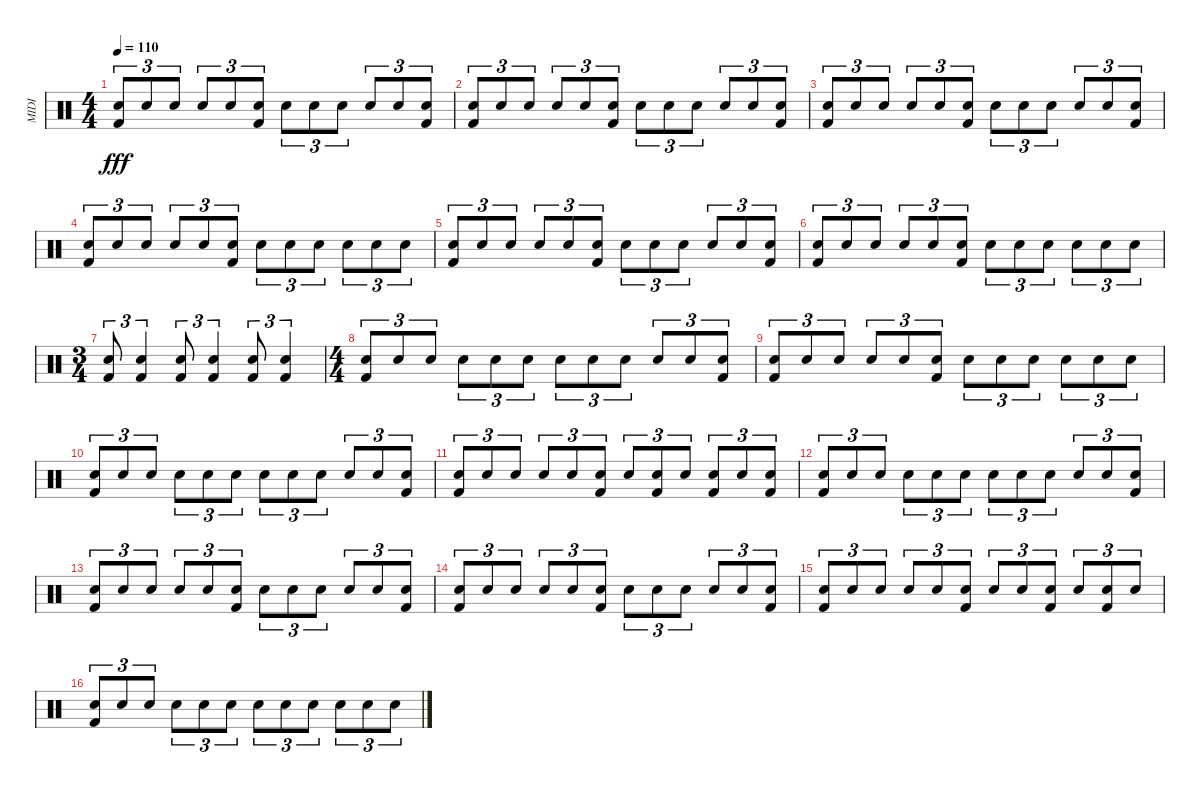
\track ("MIDI" "MIDI") {instrument percussion}
\staff
\articulation defaults
\ts (4 4)
\tempo 110
\clef neutral
\ks c
("Kick (hit) 2" "Snare (hit)").8{tu (3 2) dy fff} "Snare (hit)".8{tu (3 2)} "Snare (hit)".8{tu (3 2)} "Snare (hit)".8{tu (3 2)} "Snare (hit)".8{tu (3 2)} ("Kick (hit) 2" "Snare (hit)").8{tu (3 2)} "Snare (hit)".8{tu (3 2)} "Snare (hit)".8{tu (3 2)} "Snare (hit)".8{tu (3 2)} "Snare (hit)".8{tu (3 2)} "Snare (hit)".8{tu (3 2)} ("Kick (hit) 2" "Snare (hit)").8{tu (3 2)} |
("Kick (hit) 2" "Snare (hit)").8{tu (3 2)} "Snare (hit)".8{tu (3 2)} "Snare (hit)".8{tu (3 2)} "Snare (hit)".8{tu (3 2)} "Snare (hit)".8{tu (3 2)} ("Kick (hit) 2" "Snare (hit)").8{tu (3 2)} "Snare (hit)".8{tu (3 2)} "Snare (hit)".8{tu (3 2)} "Snare (hit)".8{tu (3 2)} "Snare (hit)".8{tu (3 2)} "Snare (hit)".8{tu (3 2)} ("Kick (hit) 2" "Snare (hit)").8{tu (3 2)} |
("Kick (hit) 2" "Snare (hit)").8{tu (3 2)} "Snare (hit)".8{tu (3 2)} "Snare (hit)".8{tu (3 2)} "Snare (hit)".8{tu (3 2)} "Snare (hit)".8{tu (3 2)} ("Kick (hit) 2" "Snare (hit)").8{tu (3 2)} "Snare (hit)".8{tu (3 2)} "Snare (hit)".8{tu (3 2)} "Snare (hit)".8{tu (3 2)} "Snare (hit)".8{tu (3 2)} "Snare (hit)".8{tu (3 2)} ("Kick (hit) 2" "Snare (hit)").8{tu (3 2)} |
("Kick (hit) 2" "Snare (hit)").8{tu (3 2)} "Snare (hit)".8{tu (3 2)} "Snare (hit)".8{tu (3 2)} "Snare (hit)".8{tu (3 2)} "Snare (hit)".8{tu (3 2)} ("Kick (hit) 2" "Snare (hit)").8{tu (3 2)} "Snare (hit)".8{tu (3 2)} "Snare (hit)".8{tu (3 2)} "Snare (hit)".8{tu (3 2)} "Snare (hit)".8{tu (3 2)} "Snare (hit)".8{tu (3 2)} "Snare (hit)".8{tu (3 2)} |
("Kick (hit) 2" "Snare (hit)").8{tu (3 2)} "Snare (hit)".8{tu (3 2)} "Snare (hit)".8{tu (3 2)} "Snare (hit)".8{tu (3 2)} "Snare (hit)".8{tu (3 2)} ("Kick (hit) 2" "Snare (hit)").8{tu (3 2)} "Snare (hit)".8{tu (3 2)} "Snare (hit)".8{tu (3 2)} "Snare (hit)".8{tu (3 2)} "Snare (hit)".8{tu (3 2)} "Snare (hit)".8{tu (3 2)} ("Kick (hit) 2" "Snare (hit)").8{tu (3 2)} |
("Kick (hit) 2" "Snare (hit)").8{tu (3 2)} "Snare (hit)".8{tu (3 2)} "Snare (hit)".8{tu (3 2)} "Snare (hit)".8{tu (3 2)} "Snare (hit)".8{tu (3 2)} ("Kick (hit) 2" "Snare (hit)").8{tu (3 2)} "Snare (hit)".8{tu (3 2)} "Snare (hit)".8{tu (3 2)} "Snare (hit)".8{tu (3 2)} "Snare (hit)".8{tu (3 2)} "Snare (hit)".8{tu (3 2)} "Snare (hit)".8{tu (3 2)} |
\ts (3 4)
("Kick (hit) 2" "Snare (hit)").8{tu (3 2)} ("Kick (hit) 2" "Snare (hit)").4{tu (3 2)} ("Kick (hit) 2" "Snare (hit)").8{tu (3 2)} ("Kick (hit) 2" "Snare (hit)").4{tu (3 2)} ("Kick (hit) 2" "Snare (hit)").8{tu (3 2)} ("Kick (hit) 2" "Snare (hit)").4{tu (3 2)} |
\ts (4 4)
("Kick (hit) 2" "Snare (hit)").8{tu (3 2)} "Snare (hit)".8{tu (3 2)} "Snare (hit)".8{tu (3 2)} "Snare (hit)".8{tu (3 2)} "Snare (hit)".8{tu (3 2)} "Snare (hit)".8{tu (3 2)} "Snare (hit)".8{tu (3 2)} "Snare (hit)".8{tu (3 2)} "Snare (hit)".8{tu (3 2)} "Snare (hit)".8{tu (3 2)} "Snare (hit)".8{tu (3 2)} ("Kick (hit) 2" "Snare (hit)").8{tu (3 2)} |
("Kick (hit) 2" "Snare (hit)").8{tu (3 2)} "Snare (hit)".8{tu (3 2)} "Snare (hit)".8{tu (3 2)} "Snare (hit)".8{tu (3 2)} "Snare (hit)".8{tu (3 2)} ("Kick (hit) 2" "Snare (hit)").8{tu (3 2)} "Snare (hit)".8{tu (3 2)} "Snare (hit)".8{tu (3 2)} "Snare (hit)".8{tu (3 2)} "Snare (hit)".8{tu (3 2)} "Snare (hit)".8{tu (3 2)} "Snare (hit)".8{tu (3 2)} |
("Kick (hit) 2" "Snare (hit)").8{tu (3 2)} "Snare (hit)".8{tu (3 2)} "Snare (hit)".8{tu (3 2)} "Snare (hit)".8{tu (3 2)} "Snare (hit)".8{tu (3 2)} "Snare (hit)".8{tu (3 2)} "Snare (hit)".8{tu (3 2)} "Snare (hit)".8{tu (3 2)} "Snare (hit)".8{tu (3 2)} "Snare (hit)".8{tu (3 2)} "Snare (hit)".8{tu (3 2)} ("Kick (hit) 2" "Snare (hit)").8{tu (3 2)} |
("Kick (hit) 2" "Snare (hit)").8{tu (3 2)} "Snare (hit)".8{tu (3 2)} "Snare (hit)".8{tu (3 2)} "Snare (hit)".8{tu (3 2)} "Snare (hit)".8{tu (3 2)} ("Kick (hit) 2" "Snare (hit)").8{tu (3 2)} "Snare (hit)".8{tu (3 2)} ("Kick (hit) 2" "Snare (hit)").8{tu (3 2)} "Snare (hit)".8{tu (3 2)} ("Kick (hit) 2" "Snare (hit)").8{tu (3 2)} "Snare (hit)".8{tu (3 2)} ("Kick (hit) 2" "Snare (hit)").8{tu (3 2)} |
("Kick (hit) 2" "Snare (hit)").8{tu (3 2)} "Snare (hit)".8{tu (3 2)} "Snare (hit)".8{tu (3 2)} "Snare (hit)".8{tu (3 2)} "Snare (hit)".8{tu (3 2)} "Snare (hit)".8{tu (3 2)} "Snare (hit)".8{tu (3 2)} "Snare (hit)".8{tu (3 2)} "Snare (hit)".8{tu (3 2)} "Snare (hit)".8{tu (3 2)} "Snare (hit)".8{tu (3 2)} ("Kick (hit) 2" "Snare (hit)").8{tu (3 2)} |
("Kick (hit) 2" "Snare (hit)").8{tu (3 2)} "Snare (hit)".8{tu (3 2)} "Snare (hit)".8{tu (3 2)} "Snare (hit)".8{tu (3 2)} "Snare (hit)".8{tu (3 2)} ("Kick (hit) 2" "Snare (hit)").8{tu (3 2)} "Snare (hit)".8{tu (3 2)} "Snare (hit)".8{tu (3 2)} "Snare (hit)".8{tu (3 2)} "Snare (hit)".8{tu (3 2)} "Snare (hit)".8{tu (3 2)} ("Kick (hit) 2" "Snare (hit)").8{tu (3 2)} |
("Kick (hit) 2" "Snare (hit)").8{tu (3 2)} "Snare (hit)".8{tu (3 2)} "Snare (hit)".8{tu (3 2)} "Snare (hit)".8{tu (3 2)} "Snare (hit)".8{tu (3 2)} ("Kick (hit) 2" "Snare (hit)").8{tu (3 2)} "Snare (hit)".8{tu (3 2)} "Snare (hit)".8{tu (3 2)} "Snare (hit)".8{tu (3 2)} "Snare (hit)".8{tu (3 2)} "Snare (hit)".8{tu (3 2)} ("Kick (hit) 2" "Snare (hit)").8{tu (3 2)} |
("Kick (hit) 2" "Snare (hit)").8{tu (3 2)} "Snare (hit)".8{tu (3 2)} "Snare (hit)".8{tu (3 2)} "Snare (hit)".8{tu (3 2)} "Snare (hit)".8{tu (3 2)} ("Kick (hit) 2" "Snare (hit)").8{tu (3 2)} "Snare (hit)".8{tu (3 2)} "Snare (hit)".8{tu (3 2)} ("Kick (hit) 2" "Snare (hit)").8{tu (3 2)} "Snare (hit)".8{tu (3 2)} ("Kick (hit) 2" "Snare (hit)").8{tu (3 2)} "Snare (hit)".8{tu (3 2)} |
("Kick (hit) 2" "Snare (hit)").8{tu (3 2)} "Snare (hit)".8{tu (3 2)} "Snare (hit)".8{tu (3 2)} "Snare (hit)".8{tu (3 2)} "Snare (hit)".8{tu (3 2)} "Snare (hit)".8{tu (3 2)} "Snare (hit)".8{tu (3 2)} "Snare (hit)".8{tu (3 2)} "Snare (hit)".8{tu (3 2)} "Snare (hit)".8{tu (3 2)} "Snare (hit)".8{tu (3 2)} "Snare (hit)".8{tu (3 2)}
